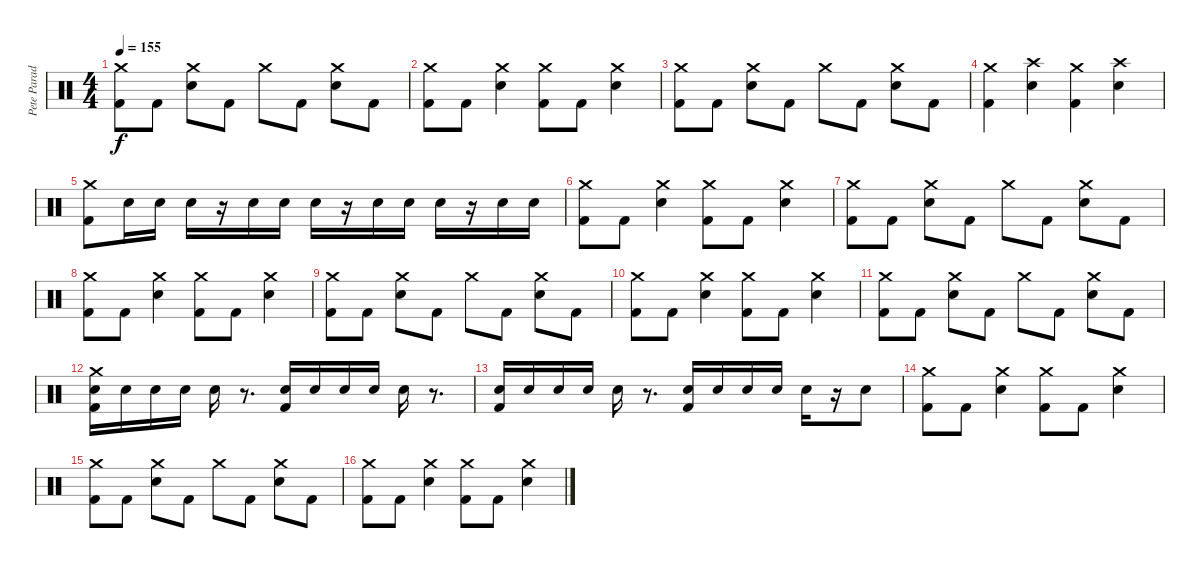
\track ("Pete Parada - Drums" "Pete Parad") {instrument percussion}
\staff {score}
\articulation defaults
\ts (4 4)
\tempo 155
\clef neutral
\ks c
("Crash medium (hit)" "Kick (hit) 2").8{dy f} "Kick (hit) 2".8 ("Crash medium (hit)" "Electric Snare (hit)").8 "Kick (hit) 2".8 "Crash medium (hit)".8 "Kick (hit) 2".8 ("Crash medium (hit)" "Electric Snare (hit)").8 "Kick (hit) 2".8 |
("Crash medium (hit)" "Kick (hit) 2").8 "Kick (hit) 2".8 ("Crash medium (hit)" "Electric Snare (hit)").4 ("Crash medium (hit)" "Kick (hit) 2").8 "Kick (hit) 2".8 ("Crash medium (hit)" "Electric Snare (hit)").4 |
("Crash medium (hit)" "Kick (hit) 2").8 "Kick (hit) 2".8 ("Crash medium (hit)" "Electric Snare (hit)").8 "Kick (hit) 2".8 "Crash medium (hit)".8 "Kick (hit) 2".8 ("Crash medium (hit)" "Electric Snare (hit)").8 "Kick (hit) 2".8 |
("Crash medium (hit)" "Kick (hit) 2").4 ("Crash high (hit)" "Electric Snare (hit)").4 ("Crash medium (hit)" "Kick (hit) 2").4 ("Crash high (hit)" "Electric Snare (hit)").4 |
("Crash medium (hit)" "Kick (hit) 2").8 "Electric Snare (hit)".16 "Electric Snare (hit)".16 "Electric Snare (hit)".16 r.16 "Electric Snare (hit)".16 "Electric Snare (hit)".16 "Electric Snare (hit)".16 r.16 "Electric Snare (hit)".16 "Electric Snare (hit)".16 "Electric Snare (hit)".16 r.16 "Electric Snare (hit)".16 "Electric Snare (hit)".16 |
("Crash medium (hit)" "Kick (hit) 2").8 "Kick (hit) 2".8 ("Crash medium (hit)" "Electric Snare (hit)").4 ("Crash medium (hit)" "Kick (hit) 2").8 "Kick (hit) 2".8 ("Crash medium (hit)" "Electric Snare (hit)").4 |
("Crash medium (hit)" "Kick (hit) 2").8 "Kick (hit) 2".8 ("Crash medium (hit)" "Electric Snare (hit)").8 "Kick (hit) 2".8 "Crash medium (hit)".8 "Kick (hit) 2".8 ("Crash medium (hit)" "Electric Snare (hit)").8 "Kick (hit) 2".8 |
("Crash medium (hit)" "Kick (hit) 2").8 "Kick (hit) 2".8 ("Crash medium (hit)" "Electric Snare (hit)").4 ("Crash medium (hit)" "Kick (hit) 2").8 "Kick (hit) 2".8 ("Crash medium (hit)" "Electric Snare (hit)").4 |
("Crash medium (hit)" "Kick (hit) 2").8 "Kick (hit) 2".8 ("Crash medium (hit)" "Electric Snare (hit)").8 "Kick (hit) 2".8 "Crash medium (hit)".8 "Kick (hit) 2".8 ("Crash medium (hit)" "Electric Snare (hit)").8 "Kick (hit) 2".8 |
("Crash medium (hit)" "Kick (hit) 2").8 "Kick (hit) 2".8 ("Crash medium (hit)" "Electric Snare (hit)").4 ("Crash medium (hit)" "Kick (hit) 2").8 "Kick (hit) 2".8 ("Crash medium (hit)" "Electric Snare (hit)").4 |
("Crash medium (hit)" "Kick (hit) 2").8 "Kick (hit) 2".8 ("Crash medium (hit)" "Electric Snare (hit)").8 "Kick (hit) 2".8 "Crash medium (hit)".8 "Kick (hit) 2".8 ("Crash medium (hit)" "Electric Snare (hit)").8 "Kick (hit) 2".8 |
("Crash medium (hit)" "Electric Snare (hit)" "Kick (hit) 2").16 "Electric Snare (hit)".16 "Electric Snare (hit)".16 "Electric Snare (hit)".16 "Electric Snare (hit)".16 r.8{d} ("Electric Snare (hit)" "Kick (hit) 2").16 "Electric Snare (hit)".16 "Electric Snare (hit)".16 "Electric Snare (hit)".16 "Electric Snare (hit)".16 r.8{d} |
("Electric Snare (hit)" "Kick (hit) 2").16 "Electric Snare (hit)".16 "Electric Snare (hit)".16 "Electric Snare (hit)".16 "Electric Snare (hit)".16 r.8{d} ("Electric Snare (hit)" "Kick (hit) 2").16 "Electric Snare (hit)".16 "Electric Snare (hit)".16 "Electric Snare (hit)".16 "Electric Snare (hit)".16 r.16 "Electric Snare (hit)".8 |
("Crash medium (hit)" "Kick (hit) 2").8 "Kick (hit) 2".8 ("Crash medium (hit)" "Electric Snare (hit)").4 ("Crash medium (hit)" "Kick (hit) 2").8 "Kick (hit) 2".8 ("Crash medium (hit)" "Electric Snare (hit)").4 |
("Crash medium (hit)" "Kick (hit) 2").8 "Kick (hit) 2".8 ("Crash medium (hit)" "Electric Snare (hit)").8 "Kick (hit) 2".8 "Crash medium (hit)".8 "Kick (hit) 2".8 ("Crash medium (hit)" "Electric Snare (hit)").8 "Kick (hit) 2".8 |
("Crash medium (hit)" "Kick (hit) 2").8 "Kick (hit) 2".8 ("Crash medium (hit)" "Electric Snare (hit)").4 ("Crash medium (hit)" "Kick (hit) 2").8 "Kick (hit) 2".8 ("Crash medium (hit)" "Electric Snare (hit)").4
